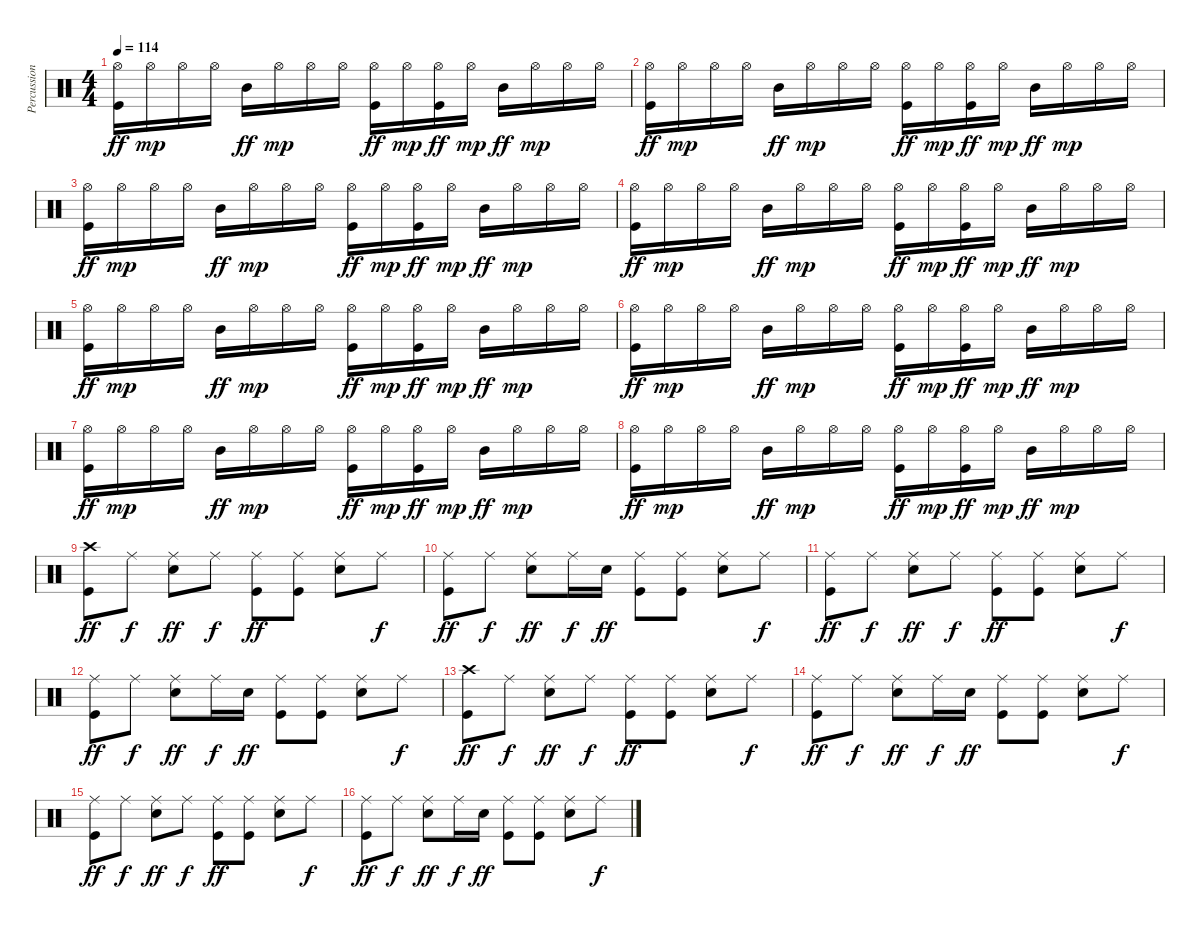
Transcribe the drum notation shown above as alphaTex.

\track ("Percussion" "Percussion") {instrument percussion}
\staff {score}
\articulation defaults
\ts (4 4)
\tempo 114
\clef neutral
\ks c
("Hi-Hat (open)" "Kick (hit)").16{dy ff} "Hi-Hat (open)".16{dy mp} "Hi-Hat (open)".16 "Hi-Hat (open)".16 "Mid Tom (hit)".16{dy ff} "Hi-Hat (open)".16{dy mp} "Hi-Hat (open)".16 "Hi-Hat (open)".16 ("Hi-Hat (open)" "Kick (hit)").16{dy ff} "Hi-Hat (open)".16{dy mp} ("Hi-Hat (open)" "Kick (hit)").16{dy ff} "Hi-Hat (open)".16{dy mp} "Mid Tom (hit)".16{dy ff} "Hi-Hat (open)".16{dy mp} "Hi-Hat (open)".16 "Hi-Hat (open)".16 |
("Hi-Hat (open)" "Kick (hit)").16{dy ff} "Hi-Hat (open)".16{dy mp} "Hi-Hat (open)".16 "Hi-Hat (open)".16 "Mid Tom (hit)".16{dy ff} "Hi-Hat (open)".16{dy mp} "Hi-Hat (open)".16 "Hi-Hat (open)".16 ("Hi-Hat (open)" "Kick (hit)").16{dy ff} "Hi-Hat (open)".16{dy mp} ("Hi-Hat (open)" "Kick (hit)").16{dy ff} "Hi-Hat (open)".16{dy mp} "Mid Tom (hit)".16{dy ff} "Hi-Hat (open)".16{dy mp} "Hi-Hat (open)".16 "Hi-Hat (open)".16 |
("Hi-Hat (open)" "Kick (hit)").16{dy ff} "Hi-Hat (open)".16{dy mp} "Hi-Hat (open)".16 "Hi-Hat (open)".16 "Mid Tom (hit)".16{dy ff} "Hi-Hat (open)".16{dy mp} "Hi-Hat (open)".16 "Hi-Hat (open)".16 ("Hi-Hat (open)" "Kick (hit)").16{dy ff} "Hi-Hat (open)".16{dy mp} ("Hi-Hat (open)" "Kick (hit)").16{dy ff} "Hi-Hat (open)".16{dy mp} "Mid Tom (hit)".16{dy ff} "Hi-Hat (open)".16{dy mp} "Hi-Hat (open)".16 "Hi-Hat (open)".16 |
("Hi-Hat (open)" "Kick (hit)").16{dy ff} "Hi-Hat (open)".16{dy mp} "Hi-Hat (open)".16 "Hi-Hat (open)".16 "Mid Tom (hit)".16{dy ff} "Hi-Hat (open)".16{dy mp} "Hi-Hat (open)".16 "Hi-Hat (open)".16 ("Hi-Hat (open)" "Kick (hit)").16{dy ff} "Hi-Hat (open)".16{dy mp} ("Hi-Hat (open)" "Kick (hit)").16{dy ff} "Hi-Hat (open)".16{dy mp} "Mid Tom (hit)".16{dy ff} "Hi-Hat (open)".16{dy mp} "Hi-Hat (open)".16 "Hi-Hat (open)".16 |
("Hi-Hat (open)" "Kick (hit)").16{dy ff} "Hi-Hat (open)".16{dy mp} "Hi-Hat (open)".16 "Hi-Hat (open)".16 "Mid Tom (hit)".16{dy ff} "Hi-Hat (open)".16{dy mp} "Hi-Hat (open)".16 "Hi-Hat (open)".16 ("Hi-Hat (open)" "Kick (hit)").16{dy ff} "Hi-Hat (open)".16{dy mp} ("Hi-Hat (open)" "Kick (hit)").16{dy ff} "Hi-Hat (open)".16{dy mp} "Mid Tom (hit)".16{dy ff} "Hi-Hat (open)".16{dy mp} "Hi-Hat (open)".16 "Hi-Hat (open)".16 |
("Hi-Hat (open)" "Kick (hit)").16{dy ff} "Hi-Hat (open)".16{dy mp} "Hi-Hat (open)".16 "Hi-Hat (open)".16 "Mid Tom (hit)".16{dy ff} "Hi-Hat (open)".16{dy mp} "Hi-Hat (open)".16 "Hi-Hat (open)".16 ("Hi-Hat (open)" "Kick (hit)").16{dy ff} "Hi-Hat (open)".16{dy mp} ("Hi-Hat (open)" "Kick (hit)").16{dy ff} "Hi-Hat (open)".16{dy mp} "Mid Tom (hit)".16{dy ff} "Hi-Hat (open)".16{dy mp} "Hi-Hat (open)".16 "Hi-Hat (open)".16 |
("Hi-Hat (open)" "Kick (hit)").16{dy ff} "Hi-Hat (open)".16{dy mp} "Hi-Hat (open)".16 "Hi-Hat (open)".16 "Mid Tom (hit)".16{dy ff} "Hi-Hat (open)".16{dy mp} "Hi-Hat (open)".16 "Hi-Hat (open)".16 ("Hi-Hat (open)" "Kick (hit)").16{dy ff} "Hi-Hat (open)".16{dy mp} ("Hi-Hat (open)" "Kick (hit)").16{dy ff} "Hi-Hat (open)".16{dy mp} "Mid Tom (hit)".16{dy ff} "Hi-Hat (open)".16{dy mp} "Hi-Hat (open)".16 "Hi-Hat (open)".16 |
("Hi-Hat (open)" "Kick (hit)").16{dy ff} "Hi-Hat (open)".16{dy mp} "Hi-Hat (open)".16 "Hi-Hat (open)".16 "Mid Tom (hit)".16{dy ff} "Hi-Hat (open)".16{dy mp} "Hi-Hat (open)".16 "Hi-Hat (open)".16 ("Hi-Hat (open)" "Kick (hit)").16{dy ff} "Hi-Hat (open)".16{dy mp} ("Hi-Hat (open)" "Kick (hit)").16{dy ff} "Hi-Hat (open)".16{dy mp} "Mid Tom (hit)".16{dy ff} "Hi-Hat (open)".16{dy mp} "Hi-Hat (open)".16 "Hi-Hat (open)".16 |
("Crash high (hit)" "Kick (hit)").8{dy ff} "Ride (middle)".8{dy f} ("Ride (middle)" "Snare (hit) 2").8{dy ff} "Ride (middle)".8{dy f} ("Ride (middle)" "Kick (hit)").8{dy ff} ("Ride (middle)" "Kick (hit)").8 ("Ride (middle)" "Snare (hit) 2").8 "Ride (middle)".8{dy f} |
("Ride (middle)" "Kick (hit)").8{dy ff} "Ride (middle)".8{dy f} ("Ride (middle)" "Snare (hit) 2").8{dy ff} "Ride (middle)".16{dy f} "Snare (hit) 2".16{dy ff} ("Ride (middle)" "Kick (hit)").8 ("Ride (middle)" "Kick (hit)").8 ("Ride (middle)" "Snare (hit) 2").8 "Ride (middle)".8{dy f} |
("Ride (middle)" "Kick (hit)").8{dy ff} "Ride (middle)".8{dy f} ("Ride (middle)" "Snare (hit) 2").8{dy ff} "Ride (middle)".8{dy f} ("Ride (middle)" "Kick (hit)").8{dy ff} ("Ride (middle)" "Kick (hit)").8 ("Ride (middle)" "Snare (hit) 2").8 "Ride (middle)".8{dy f} |
("Ride (middle)" "Kick (hit)").8{dy ff} "Ride (middle)".8{dy f} ("Ride (middle)" "Snare (hit) 2").8{dy ff} "Ride (middle)".16{dy f} "Snare (hit) 2".16{dy ff} ("Ride (middle)" "Kick (hit)").8 ("Ride (middle)" "Kick (hit)").8 ("Ride (middle)" "Snare (hit) 2").8 "Ride (middle)".8{dy f} |
("Crash high (hit)" "Kick (hit)").8{dy ff} "Ride (middle)".8{dy f} ("Ride (middle)" "Snare (hit) 2").8{dy ff} "Ride (middle)".8{dy f} ("Ride (middle)" "Kick (hit)").8{dy ff} ("Ride (middle)" "Kick (hit)").8 ("Ride (middle)" "Snare (hit) 2").8 "Ride (middle)".8{dy f} |
("Ride (middle)" "Kick (hit)").8{dy ff} "Ride (middle)".8{dy f} ("Ride (middle)" "Snare (hit) 2").8{dy ff} "Ride (middle)".16{dy f} "Snare (hit) 2".16{dy ff} ("Ride (middle)" "Kick (hit)").8 ("Ride (middle)" "Kick (hit)").8 ("Ride (middle)" "Snare (hit) 2").8 "Ride (middle)".8{dy f} |
("Ride (middle)" "Kick (hit)").8{dy ff} "Ride (middle)".8{dy f} ("Ride (middle)" "Snare (hit) 2").8{dy ff} "Ride (middle)".8{dy f} ("Ride (middle)" "Kick (hit)").8{dy ff} ("Ride (middle)" "Kick (hit)").8 ("Ride (middle)" "Snare (hit) 2").8 "Ride (middle)".8{dy f} |
("Ride (middle)" "Kick (hit)").8{dy ff} "Ride (middle)".8{dy f} ("Ride (middle)" "Snare (hit) 2").8{dy ff} "Ride (middle)".16{dy f} "Snare (hit) 2".16{dy ff} ("Ride (middle)" "Kick (hit)").8 ("Ride (middle)" "Kick (hit)").8 ("Ride (middle)" "Snare (hit) 2").8 "Ride (middle)".8{dy f}
